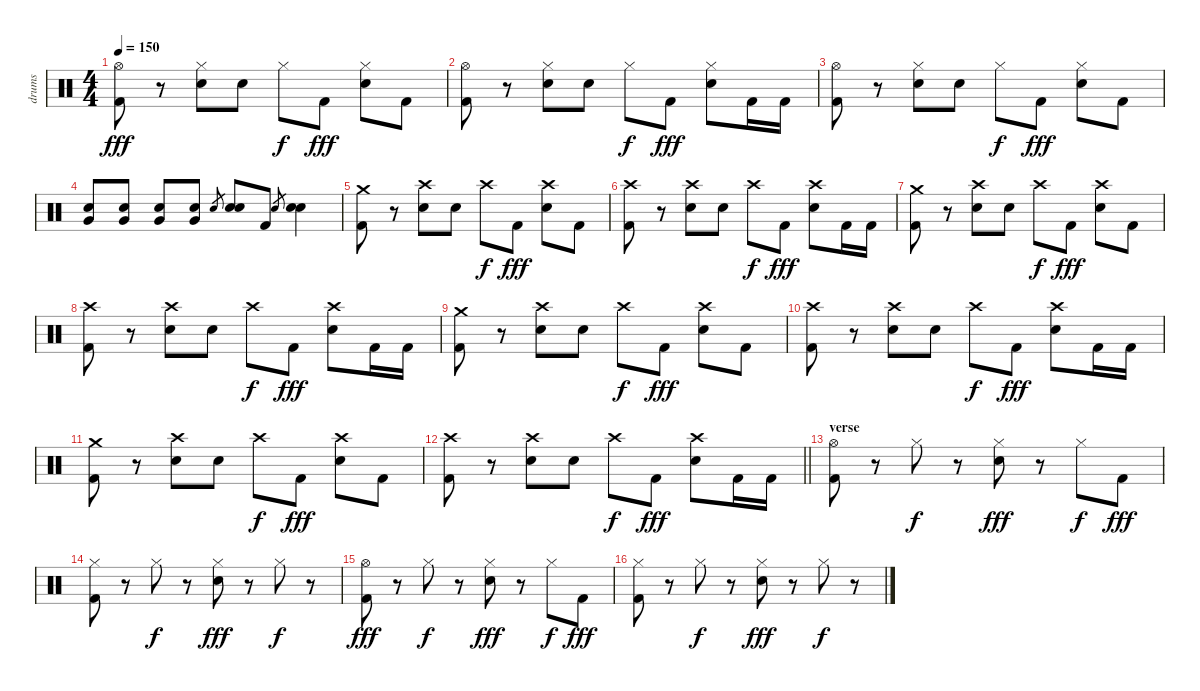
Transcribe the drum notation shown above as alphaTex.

\track ("drums" "drums") {instrument percussion}
\staff {score}
\articulation defaults
\ts (4 4)
\tempo 150
\clef neutral
\ks c
("Hi-Hat (open)" "Kick (hit) 2").8{dy fff} r.8 ("Hi-Hat (closed)" "Snare (hit) 2").8 "Snare (hit) 2".8 "Hi-Hat (closed)".8{dy f} "Kick (hit) 2".8{dy fff} ("Hi-Hat (closed)" "Snare (hit) 2").8 "Kick (hit) 2".8 |
("Hi-Hat (open)" "Kick (hit) 2").8 r.8 ("Hi-Hat (closed)" "Snare (hit) 2").8 "Snare (hit) 2".8 "Hi-Hat (closed)".8{dy f} "Kick (hit) 2".8{dy fff} ("Hi-Hat (closed)" "Snare (hit) 2").8 "Kick (hit) 2".16 "Kick (hit) 2".16 |
("Hi-Hat (open)" "Kick (hit) 2").8 r.8 ("Hi-Hat (closed)" "Snare (hit) 2").8 "Snare (hit) 2".8 "Hi-Hat (closed)".8{dy f} "Kick (hit) 2".8{dy fff} ("Hi-Hat (closed)" "Snare (hit) 2").8 "Kick (hit) 2".8 |
("Very Low Tom (hit)" "Snare (hit) 2").8 ("Very Low Tom (hit)" "Snare (hit) 2").8 ("Very Low Tom (hit)" "Snare (hit) 2").8 ("Very Low Tom (hit)" "Snare (hit) 2").8 "Snare (hit) 2".8{gr} ("Snare (hit) 2" "Snare (hit) 2").8 "Kick (hit) 2".8 "Snare (hit) 2".8{gr} ("Snare (hit) 2" "Snare (hit) 2").4 |
("Crash medium (hit)" "Kick (hit) 2").8 r.8 ("Crash high (hit)" "Snare (hit) 2").8 "Snare (hit) 2".8 "Crash high (hit)".8{dy f} "Kick (hit) 2".8{dy fff} ("Crash high (hit)" "Snare (hit) 2").8 "Kick (hit) 2".8 |
("Crash high (hit)" "Kick (hit) 2").8 r.8 ("Crash high (hit)" "Snare (hit) 2").8 "Snare (hit) 2".8 "Crash high (hit)".8{dy f} "Kick (hit) 2".8{dy fff} ("Crash high (hit)" "Snare (hit) 2").8 "Kick (hit) 2".16 "Kick (hit) 2".16 |
("Crash medium (hit)" "Kick (hit) 2").8 r.8 ("Crash high (hit)" "Snare (hit) 2").8 "Snare (hit) 2".8 "Crash high (hit)".8{dy f} "Kick (hit) 2".8{dy fff} ("Crash high (hit)" "Snare (hit) 2").8 "Kick (hit) 2".8 |
("Crash high (hit)" "Kick (hit) 2").8 r.8 ("Crash high (hit)" "Snare (hit) 2").8 "Snare (hit) 2".8 "Crash high (hit)".8{dy f} "Kick (hit) 2".8{dy fff} ("Crash high (hit)" "Snare (hit) 2").8 "Kick (hit) 2".16 "Kick (hit) 2".16 |
("Crash medium (hit)" "Kick (hit) 2").8 r.8 ("Crash high (hit)" "Snare (hit) 2").8 "Snare (hit) 2".8 "Crash high (hit)".8{dy f} "Kick (hit) 2".8{dy fff} ("Crash high (hit)" "Snare (hit) 2").8 "Kick (hit) 2".8 |
("Crash high (hit)" "Kick (hit) 2").8 r.8 ("Crash high (hit)" "Snare (hit) 2").8 "Snare (hit) 2".8 "Crash high (hit)".8{dy f} "Kick (hit) 2".8{dy fff} ("Crash high (hit)" "Snare (hit) 2").8 "Kick (hit) 2".16 "Kick (hit) 2".16 |
("Crash medium (hit)" "Kick (hit) 2").8 r.8 ("Crash high (hit)" "Snare (hit) 2").8 "Snare (hit) 2".8 "Crash high (hit)".8{dy f} "Kick (hit) 2".8{dy fff} ("Crash high (hit)" "Snare (hit) 2").8 "Kick (hit) 2".8 |
\barLineRight lightlight
("Crash high (hit)" "Kick (hit) 2").8 r.8 ("Crash high (hit)" "Snare (hit) 2").8 "Snare (hit) 2".8 "Crash high (hit)".8{dy f} "Kick (hit) 2".8{dy fff} ("Crash high (hit)" "Snare (hit) 2").8 "Kick (hit) 2".16 "Kick (hit) 2".16 |
\section ("" "verse")
("Hi-Hat (open)" "Kick (hit) 2").8 r.8 "Hi-Hat (closed)".8{dy f} r.8 ("Hi-Hat (closed)" "Snare (hit) 2").8{dy fff} r.8 "Hi-Hat (closed)".8{dy f} "Kick (hit) 2".8{dy fff} |
("Hi-Hat (closed)" "Kick (hit) 2").8 r.8 "Hi-Hat (closed)".8{dy f} r.8 ("Hi-Hat (closed)" "Snare (hit) 2").8{dy fff} r.8 "Hi-Hat (closed)".8{dy f} r.8 |
("Hi-Hat (open)" "Kick (hit) 2").8{dy fff} r.8 "Hi-Hat (closed)".8{dy f} r.8 ("Hi-Hat (closed)" "Snare (hit) 2").8{dy fff} r.8 "Hi-Hat (closed)".8{dy f} "Kick (hit) 2".8{dy fff} |
("Hi-Hat (closed)" "Kick (hit) 2").8 r.8 "Hi-Hat (closed)".8{dy f} r.8 ("Hi-Hat (closed)" "Snare (hit) 2").8{dy fff} r.8 "Hi-Hat (closed)".8{dy f} r.8
